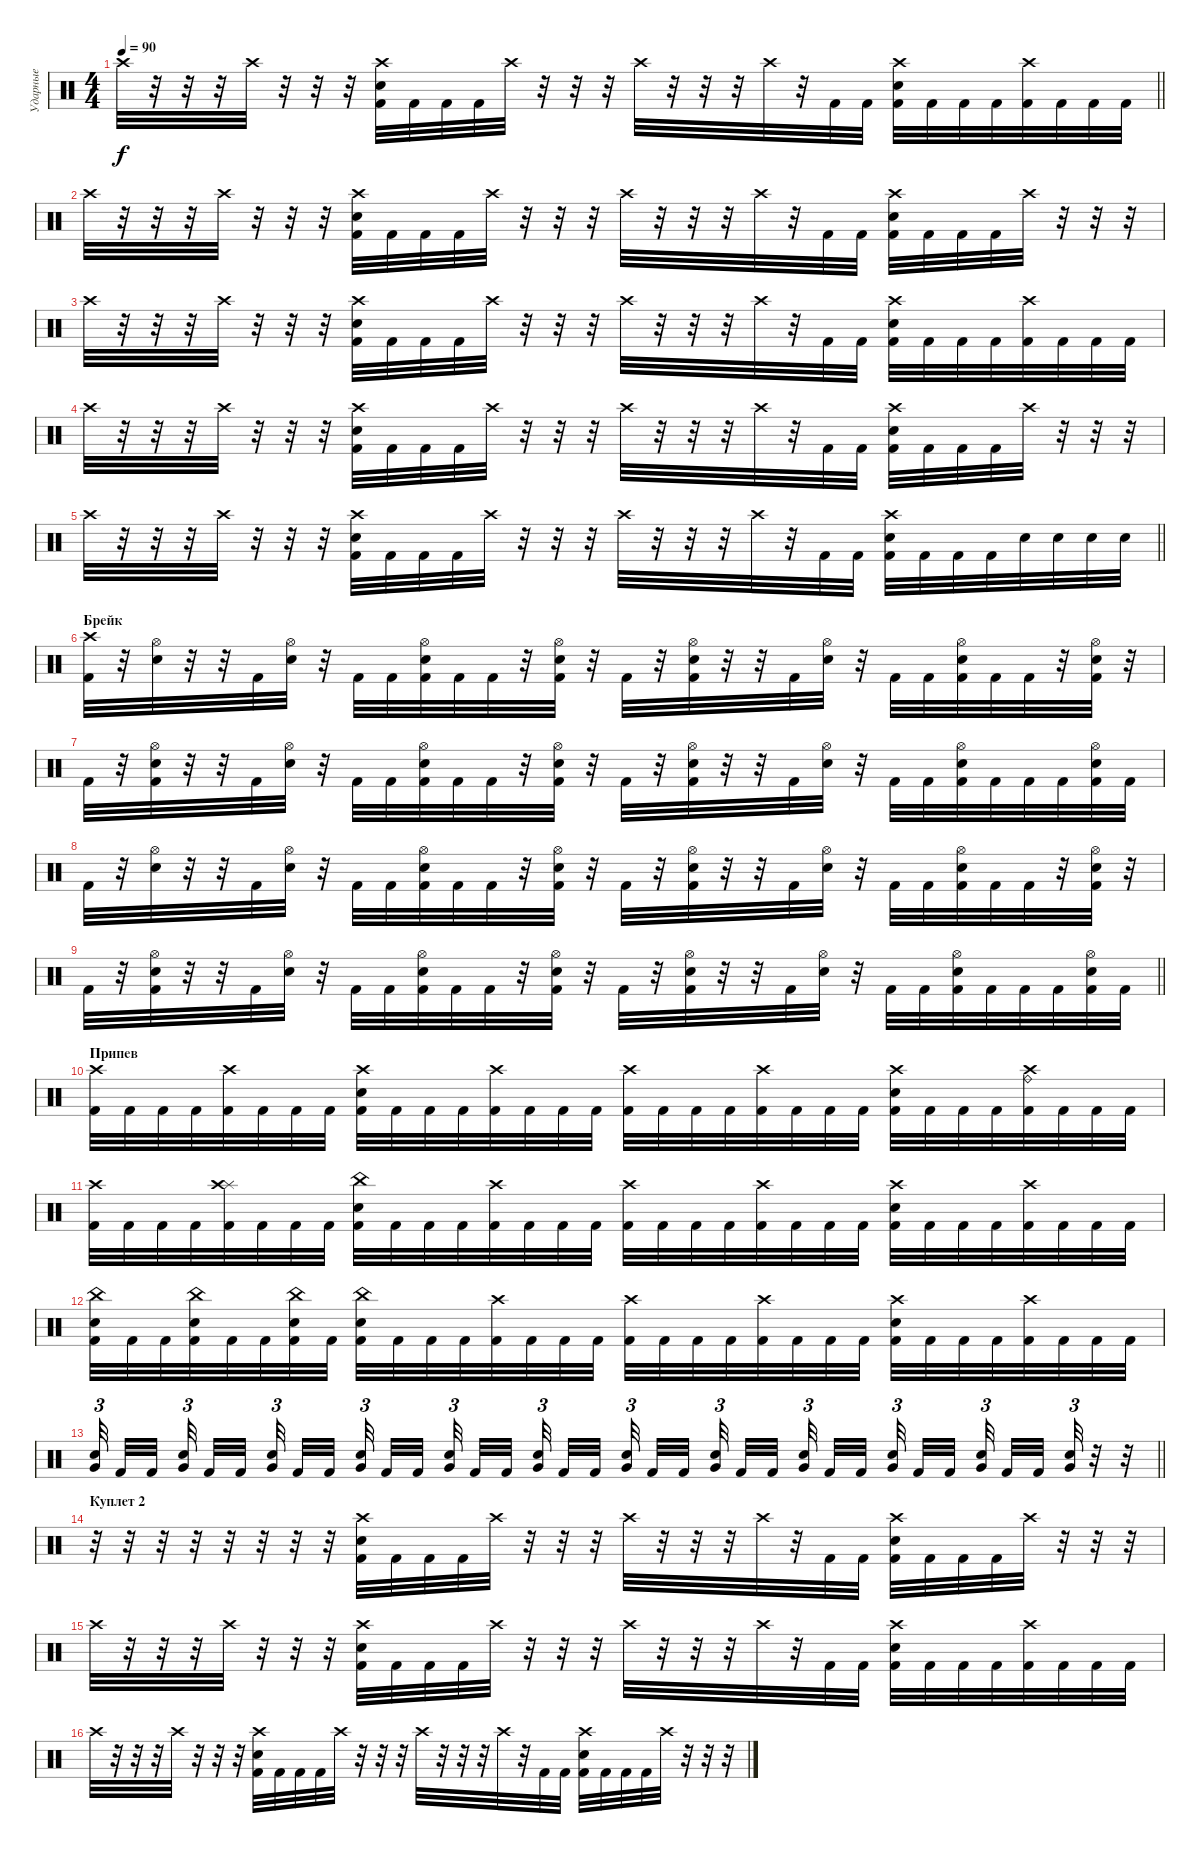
\track ("Ударные" "Ударные") {instrument percussion}
\staff {score}
\articulation defaults
\ts (4 4)
\tempo 90
\clef neutral
\barLineRight lightlight
\ks c "Crash high (hit)".32{dy f}
r.32 r.32 r.32 "Crash high (hit)".32 r.32 r.32 r.32 ("Crash high (hit)" "Electric Snare (hit)" "Kick (hit) 2").32 "Kick (hit) 2".32 "Kick (hit) 2".32 "Kick (hit) 2".32 "Crash high (hit)".32 r.32 r.32 r.32 "Crash high (hit)".32 r.32 r.32 r.32 "Crash high (hit)".32 r.32 "Kick (hit) 2".32 "Kick (hit) 2".32 ("Crash high (hit)" "Electric Snare (hit)" "Kick (hit) 2").32 "Kick (hit) 2".32 "Kick (hit) 2".32 "Kick (hit) 2".32 ("Crash high (hit)" "Kick (hit) 2").32 "Kick (hit) 2".32 "Kick (hit) 2".32 "Kick (hit) 2".32 |
"Crash high (hit)".32 r.32 r.32 r.32 "Crash high (hit)".32 r.32 r.32 r.32 ("Crash high (hit)" "Electric Snare (hit)" "Kick (hit) 2").32 "Kick (hit) 2".32 "Kick (hit) 2".32 "Kick (hit) 2".32 "Crash high (hit)".32 r.32 r.32 r.32 "Crash high (hit)".32 r.32 r.32 r.32 "Crash high (hit)".32 r.32 "Kick (hit) 2".32 "Kick (hit) 2".32 ("Crash high (hit)" "Electric Snare (hit)" "Kick (hit) 2").32 "Kick (hit) 2".32 "Kick (hit) 2".32 "Kick (hit) 2".32 "Crash high (hit)".32 r.32 r.32 r.32 |
"Crash high (hit)".32 r.32 r.32 r.32 "Crash high (hit)".32 r.32 r.32 r.32 ("Crash high (hit)" "Electric Snare (hit)" "Kick (hit) 2").32 "Kick (hit) 2".32 "Kick (hit) 2".32 "Kick (hit) 2".32 "Crash high (hit)".32 r.32 r.32 r.32 "Crash high (hit)".32 r.32 r.32 r.32 "Crash high (hit)".32 r.32 "Kick (hit) 2".32 "Kick (hit) 2".32 ("Crash high (hit)" "Electric Snare (hit)" "Kick (hit) 2").32 "Kick (hit) 2".32 "Kick (hit) 2".32 "Kick (hit) 2".32 ("Crash high (hit)" "Kick (hit) 2").32 "Kick (hit) 2".32 "Kick (hit) 2".32 "Kick (hit) 2".32 |
"Crash high (hit)".32 r.32 r.32 r.32 "Crash high (hit)".32 r.32 r.32 r.32 ("Crash high (hit)" "Electric Snare (hit)" "Kick (hit) 2").32 "Kick (hit) 2".32 "Kick (hit) 2".32 "Kick (hit) 2".32 "Crash high (hit)".32 r.32 r.32 r.32 "Crash high (hit)".32 r.32 r.32 r.32 "Crash high (hit)".32 r.32 "Kick (hit) 2".32 "Kick (hit) 2".32 ("Crash high (hit)" "Electric Snare (hit)" "Kick (hit) 2").32 "Kick (hit) 2".32 "Kick (hit) 2".32 "Kick (hit) 2".32 "Crash high (hit)".32 r.32 r.32 r.32 |
\barLineRight lightlight "Crash high (hit)".32
r.32 r.32 r.32 "Crash high (hit)".32 r.32 r.32 r.32 ("Crash high (hit)" "Electric Snare (hit)" "Kick (hit) 2").32 "Kick (hit) 2".32 "Kick (hit) 2".32 "Kick (hit) 2".32 "Crash high (hit)".32 r.32 r.32 r.32 "Crash high (hit)".32 r.32 r.32 r.32 "Crash high (hit)".32 r.32 "Kick (hit) 2".32 "Kick (hit) 2".32 ("Crash high (hit)" "Electric Snare (hit)" "Kick (hit) 2").32 "Kick (hit) 2".32 "Kick (hit) 2".32 "Kick (hit) 2".32 "Electric Snare (hit)".32 "Electric Snare (hit)".32 "Electric Snare (hit)".32 "Electric Snare (hit)".32 |
\section ("" "Брейк")
("Crash high (hit)" "Kick (hit) 2").32 r.32 ("Hi-Hat (open)" "Electric Snare (hit)").32 r.32 r.32 "Kick (hit) 2".32 ("Hi-Hat (open)" "Electric Snare (hit)").32 r.32 "Kick (hit) 2".32 "Kick (hit) 2".32 ("Hi-Hat (open)" "Electric Snare (hit)" "Kick (hit) 2").32 "Kick (hit) 2".32 "Kick (hit) 2".32 r.32 ("Hi-Hat (open)" "Electric Snare (hit)" "Kick (hit) 2").32 r.32 "Kick (hit) 2".32 r.32 ("Hi-Hat (open)" "Electric Snare (hit)" "Kick (hit) 2").32 r.32 r.32 "Kick (hit) 2".32 ("Hi-Hat (open)" "Electric Snare (hit)").32 r.32 "Kick (hit) 2".32 "Kick (hit) 2".32 ("Hi-Hat (open)" "Electric Snare (hit)" "Kick (hit) 2").32 "Kick (hit) 2".32 "Kick (hit) 2".32 r.32 ("Hi-Hat (open)" "Electric Snare (hit)" "Kick (hit) 2").32 r.32 |
"Kick (hit) 2".32 r.32 ("Hi-Hat (open)" "Electric Snare (hit)" "Kick (hit) 2").32 r.32 r.32 "Kick (hit) 2".32 ("Hi-Hat (open)" "Electric Snare (hit)").32 r.32 "Kick (hit) 2".32 "Kick (hit) 2".32 ("Hi-Hat (open)" "Electric Snare (hit)" "Kick (hit) 2").32 "Kick (hit) 2".32 "Kick (hit) 2".32 r.32 ("Hi-Hat (open)" "Electric Snare (hit)" "Kick (hit) 2").32 r.32 "Kick (hit) 2".32 r.32 ("Hi-Hat (open)" "Electric Snare (hit)" "Kick (hit) 2").32 r.32 r.32 "Kick (hit) 2".32 ("Hi-Hat (open)" "Electric Snare (hit)").32 r.32 "Kick (hit) 2".32 "Kick (hit) 2".32 ("Hi-Hat (open)" "Electric Snare (hit)" "Kick (hit) 2").32 "Kick (hit) 2".32 "Kick (hit) 2".32 "Kick (hit) 2".32 ("Hi-Hat (open)" "Electric Snare (hit)" "Kick (hit) 2").32 "Kick (hit) 2".32 |
"Kick (hit) 2".32 r.32 ("Hi-Hat (open)" "Electric Snare (hit)").32 r.32 r.32 "Kick (hit) 2".32 ("Hi-Hat (open)" "Electric Snare (hit)").32 r.32 "Kick (hit) 2".32 "Kick (hit) 2".32 ("Hi-Hat (open)" "Electric Snare (hit)" "Kick (hit) 2").32 "Kick (hit) 2".32 "Kick (hit) 2".32 r.32 ("Hi-Hat (open)" "Electric Snare (hit)" "Kick (hit) 2").32 r.32 "Kick (hit) 2".32 r.32 ("Hi-Hat (open)" "Electric Snare (hit)" "Kick (hit) 2").32 r.32 r.32 "Kick (hit) 2".32 ("Hi-Hat (open)" "Electric Snare (hit)").32 r.32 "Kick (hit) 2".32 "Kick (hit) 2".32 ("Hi-Hat (open)" "Electric Snare (hit)" "Kick (hit) 2").32 "Kick (hit) 2".32 "Kick (hit) 2".32 r.32 ("Hi-Hat (open)" "Electric Snare (hit)" "Kick (hit) 2").32 r.32 |
\barLineRight lightlight "Kick (hit) 2".32
r.32 ("Hi-Hat (open)" "Electric Snare (hit)" "Kick (hit) 2").32 r.32 r.32 "Kick (hit) 2".32 ("Hi-Hat (open)" "Electric Snare (hit)").32 r.32 "Kick (hit) 2".32 "Kick (hit) 2".32 ("Hi-Hat (open)" "Electric Snare (hit)" "Kick (hit) 2").32 "Kick (hit) 2".32 "Kick (hit) 2".32 r.32 ("Hi-Hat (open)" "Electric Snare (hit)" "Kick (hit) 2").32 r.32 "Kick (hit) 2".32 r.32 ("Hi-Hat (open)" "Electric Snare (hit)" "Kick (hit) 2").32 r.32 r.32 "Kick (hit) 2".32 ("Hi-Hat (open)" "Electric Snare (hit)").32 r.32 "Kick (hit) 2".32 "Kick (hit) 2".32 ("Hi-Hat (open)" "Electric Snare (hit)" "Kick (hit) 2").32 "Kick (hit) 2".32 "Kick (hit) 2".32 "Kick (hit) 2".32 ("Hi-Hat (open)" "Electric Snare (hit)" "Kick (hit) 2").32 "Kick (hit) 2".32 |
\section ("" "Припев")
("Crash high (hit)" "Kick (hit) 2").32 "Kick (hit) 2".32 "Kick (hit) 2".32 "Kick (hit) 2".32 ("Crash high (hit)" "Kick (hit) 2").32 "Kick (hit) 2".32 "Kick (hit) 2".32 "Kick (hit) 2".32 ("Crash high (hit)" "Electric Snare (hit)" "Kick (hit) 2").32 "Kick (hit) 2".32 "Kick (hit) 2".32 "Kick (hit) 2".32 ("Crash high (hit)" "Kick (hit) 2").32 "Kick (hit) 2".32 "Kick (hit) 2".32 "Kick (hit) 2".32 ("Crash high (hit)" "Kick (hit) 2").32 "Kick (hit) 2".32 "Kick (hit) 2".32 "Kick (hit) 2".32 ("Crash high (hit)" "Kick (hit) 2").32 "Kick (hit) 2".32 "Kick (hit) 2".32 "Kick (hit) 2".32 ("Crash high (hit)" "Electric Snare (hit)" "Kick (hit) 2").32 "Kick (hit) 2".32 "Kick (hit) 2".32 "Kick (hit) 2".32 ("Crash high (hit)" "Ride (bell)" "Kick (hit) 2").32 "Kick (hit) 2".32 "Kick (hit) 2".32 "Kick (hit) 2".32 |
("Crash high (hit)" "Kick (hit) 2").32 "Kick (hit) 2".32 "Kick (hit) 2".32 "Kick (hit) 2".32 ("Splash (hit)" "Crash high (hit)" "Kick (hit) 2").32 "Kick (hit) 2".32 "Kick (hit) 2".32 "Kick (hit) 2".32 ("China (hit)" "Electric Snare (hit)" "Kick (hit) 2").32 "Kick (hit) 2".32 "Kick (hit) 2".32 "Kick (hit) 2".32 ("Crash high (hit)" "Kick (hit) 2").32 "Kick (hit) 2".32 "Kick (hit) 2".32 "Kick (hit) 2".32 ("Crash high (hit)" "Kick (hit) 2").32 "Kick (hit) 2".32 "Kick (hit) 2".32 "Kick (hit) 2".32 ("Crash high (hit)" "Kick (hit) 2").32 "Kick (hit) 2".32 "Kick (hit) 2".32 "Kick (hit) 2".32 ("Crash high (hit)" "Electric Snare (hit)" "Kick (hit) 2").32 "Kick (hit) 2".32 "Kick (hit) 2".32 "Kick (hit) 2".32 ("Crash high (hit)" "Kick (hit) 2").32 "Kick (hit) 2".32 "Kick (hit) 2".32 "Kick (hit) 2".32 |
("China (hit)" "Electric Snare (hit)" "Kick (hit) 2").32 "Kick (hit) 2".32 "Kick (hit) 2".32 ("China (hit)" "Electric Snare (hit)" "Kick (hit) 2").32 "Kick (hit) 2".32 "Kick (hit) 2".32 ("China (hit)" "Electric Snare (hit)" "Kick (hit) 2").32 "Kick (hit) 2".32 ("China (hit)" "Electric Snare (hit)" "Kick (hit) 2").32 "Kick (hit) 2".32 "Kick (hit) 2".32 "Kick (hit) 2".32 ("Crash high (hit)" "Kick (hit) 2").32 "Kick (hit) 2".32 "Kick (hit) 2".32 "Kick (hit) 2".32 ("Crash high (hit)" "Kick (hit) 2").32 "Kick (hit) 2".32 "Kick (hit) 2".32 "Kick (hit) 2".32 ("Crash high (hit)" "Kick (hit) 2").32 "Kick (hit) 2".32 "Kick (hit) 2".32 "Kick (hit) 2".32 ("Crash high (hit)" "Electric Snare (hit)" "Kick (hit) 2").32 "Kick (hit) 2".32 "Kick (hit) 2".32 "Kick (hit) 2".32 ("Crash high (hit)" "Kick (hit) 2").32 "Kick (hit) 2".32 "Kick (hit) 2".32 "Kick (hit) 2".32 |
\barLineRight lightlight
("Very Low Tom (hit)" "Electric Snare (hit)").32{tu (3 2) beam splitsecondary} "Kick (hit) 2".32 "Kick (hit) 2".32{beam splitsecondary} ("Very Low Tom (hit)" "Electric Snare (hit)").32{tu (3 2) beam splitsecondary} "Kick (hit) 2".32 "Kick (hit) 2".32{beam splitsecondary} ("Very Low Tom (hit)" "Electric Snare (hit)").32{tu (3 2) beam splitsecondary} "Kick (hit) 2".32 "Kick (hit) 2".32 ("Very Low Tom (hit)" "Electric Snare (hit)").32{tu (3 2) beam splitsecondary} "Kick (hit) 2".32 "Kick (hit) 2".32{beam splitsecondary} ("Very Low Tom (hit)" "Electric Snare (hit)").32{tu (3 2) beam splitsecondary} "Kick (hit) 2".32 "Kick (hit) 2".32{beam splitsecondary} ("Very Low Tom (hit)" "Electric Snare (hit)").32{tu (3 2) beam splitsecondary} "Kick (hit) 2".32 "Kick (hit) 2".32 ("Very Low Tom (hit)" "Electric Snare (hit)").32{tu (3 2) beam splitsecondary} "Kick (hit) 2".32 "Kick (hit) 2".32{beam splitsecondary} ("Very Low Tom (hit)" "Electric Snare (hit)").32{tu (3 2) beam splitsecondary} "Kick (hit) 2".32 "Kick (hit) 2".32{beam splitsecondary} ("Very Low Tom (hit)" "Electric Snare (hit)").32{tu (3 2) beam splitsecondary} "Kick (hit) 2".32 "Kick (hit) 2".32 ("Very Low Tom (hit)" "Electric Snare (hit)").32{tu (3 2) beam splitsecondary} "Kick (hit) 2".32 "Kick (hit) 2".32{beam splitsecondary} ("Very Low Tom (hit)" "Electric Snare (hit)").32{tu (3 2) beam splitsecondary} "Kick (hit) 2".32 "Kick (hit) 2".32{beam splitsecondary} ("Very Low Tom (hit)" "Electric Snare (hit)").32{tu (3 2)} r.32 r.32 |
\section ("" "Куплет 2")
r.32 r.32 r.32 r.32 r.32 r.32 r.32 r.32 ("Crash high (hit)" "Electric Snare (hit)" "Kick (hit) 2").32 "Kick (hit) 2".32 "Kick (hit) 2".32 "Kick (hit) 2".32 "Crash high (hit)".32 r.32 r.32 r.32 "Crash high (hit)".32 r.32 r.32 r.32 "Crash high (hit)".32 r.32 "Kick (hit) 2".32 "Kick (hit) 2".32 ("Crash high (hit)" "Electric Snare (hit)" "Kick (hit) 2").32 "Kick (hit) 2".32 "Kick (hit) 2".32 "Kick (hit) 2".32 "Crash high (hit)".32 r.32 r.32 r.32 |
"Crash high (hit)".32 r.32 r.32 r.32 "Crash high (hit)".32 r.32 r.32 r.32 ("Crash high (hit)" "Electric Snare (hit)" "Kick (hit) 2").32 "Kick (hit) 2".32 "Kick (hit) 2".32 "Kick (hit) 2".32 "Crash high (hit)".32 r.32 r.32 r.32 "Crash high (hit)".32 r.32 r.32 r.32 "Crash high (hit)".32 r.32 "Kick (hit) 2".32 "Kick (hit) 2".32 ("Crash high (hit)" "Electric Snare (hit)" "Kick (hit) 2").32 "Kick (hit) 2".32 "Kick (hit) 2".32 "Kick (hit) 2".32 ("Crash high (hit)" "Kick (hit) 2").32 "Kick (hit) 2".32 "Kick (hit) 2".32 "Kick (hit) 2".32 |
"Crash high (hit)".32 r.32 r.32 r.32 "Crash high (hit)".32 r.32 r.32 r.32 ("Crash high (hit)" "Electric Snare (hit)" "Kick (hit) 2").32 "Kick (hit) 2".32 "Kick (hit) 2".32 "Kick (hit) 2".32 "Crash high (hit)".32 r.32 r.32 r.32 "Crash high (hit)".32 r.32 r.32 r.32 "Crash high (hit)".32 r.32 "Kick (hit) 2".32 "Kick (hit) 2".32 ("Crash high (hit)" "Electric Snare (hit)" "Kick (hit) 2").32 "Kick (hit) 2".32 "Kick (hit) 2".32 "Kick (hit) 2".32 "Crash high (hit)".32 r.32 r.32 r.32
